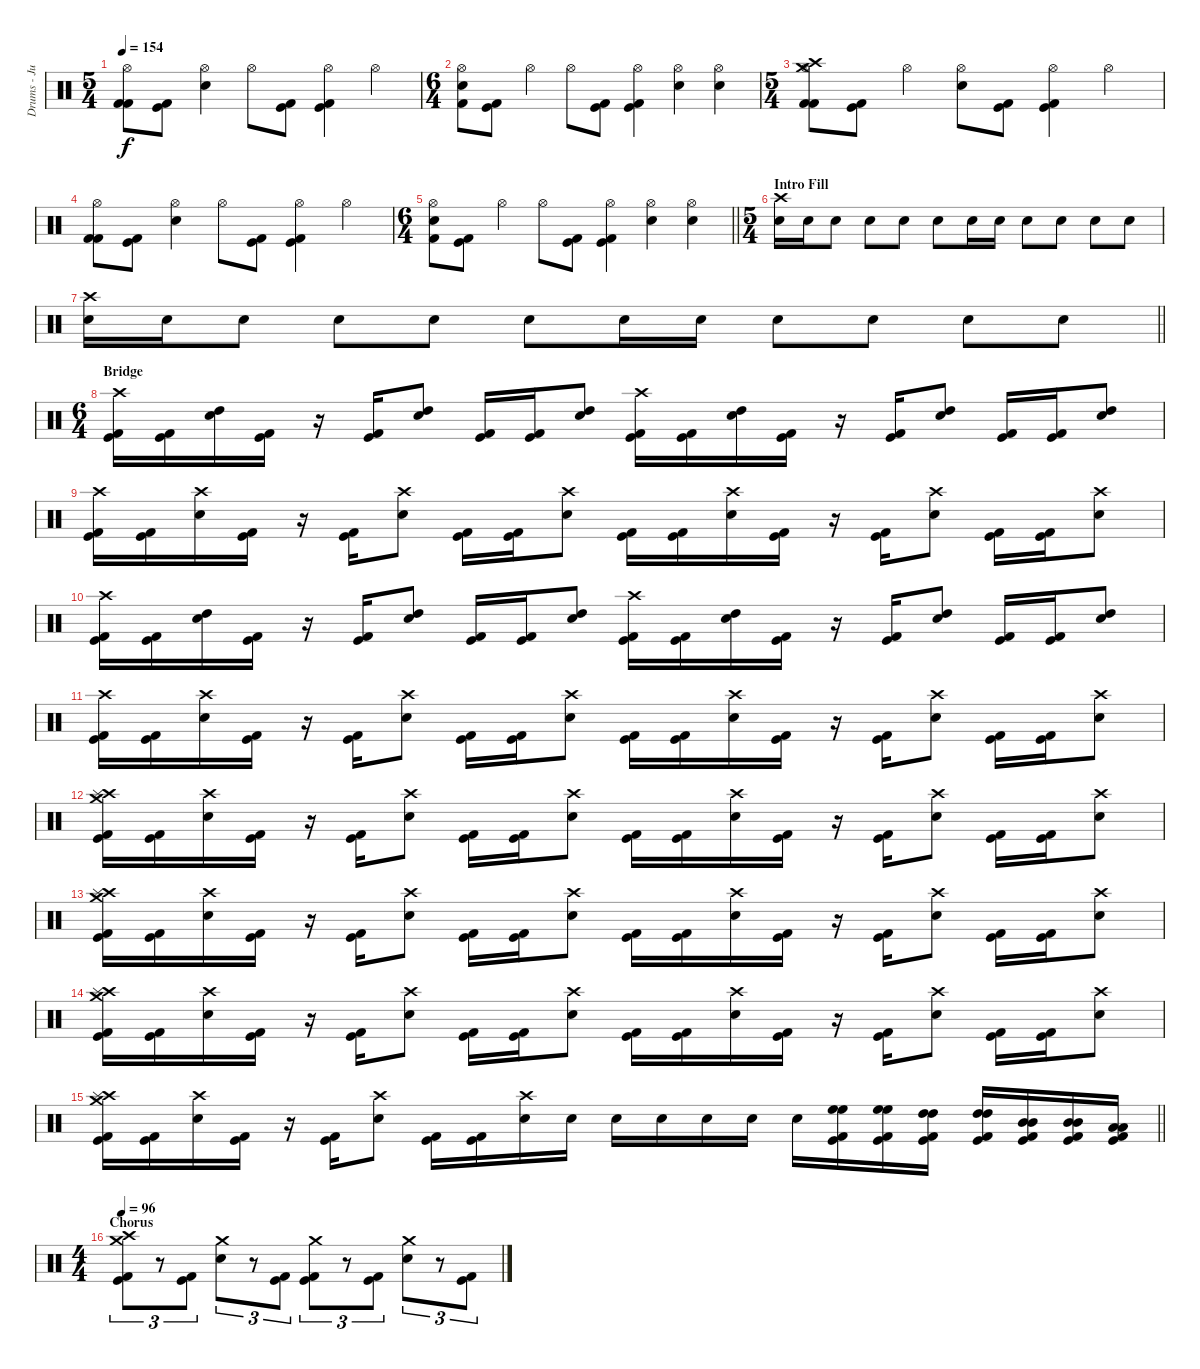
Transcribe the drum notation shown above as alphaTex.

\track ("Drums - Justin Foley" "Drums - Ju") {instrument percussion}
\staff {score}
\articulation defaults
\ts (5 4)
\tempo 154
\clef neutral
\ks c
("Hi-Hat (open)" "Kick (hit) 2" "Kick (hit) 2").8{dy f} ("Kick (hit) 2" "Kick (hit)").8 ("Hi-Hat (open)" "Snare (hit) 2").4 "Hi-Hat (open)".8 ("Kick (hit) 2" "Kick (hit)").8 ("Hi-Hat (open)" "Kick (hit) 2" "Kick (hit)").4 "Hi-Hat (open)".4 |
\ts (6 4)
("Hi-Hat (open)" "Snare (hit) 2" "Kick (hit) 2").8 ("Kick (hit) 2" "Kick (hit)").8 "Hi-Hat (open)".4 "Hi-Hat (open)".8 ("Kick (hit) 2" "Kick (hit)").8 ("Hi-Hat (open)" "Kick (hit) 2" "Kick (hit)").4 ("Hi-Hat (open)" "Snare (hit) 2").4 ("Hi-Hat (open)" "Snare (hit) 2").4 |
\ts (5 4)
("Hi-Hat (open)" "Kick (hit) 2" "Kick (hit) 2" "Crash high (hit)" "Crash medium (hit)").8 ("Kick (hit) 2" "Kick (hit)").8 "Hi-Hat (open)".4 ("Hi-Hat (open)" "Snare (hit) 2").8 ("Kick (hit) 2" "Kick (hit)").8 ("Hi-Hat (open)" "Kick (hit) 2" "Kick (hit)").4 "Hi-Hat (open)".4 |
("Hi-Hat (open)" "Kick (hit) 2" "Kick (hit) 2").8 ("Kick (hit) 2" "Kick (hit)").8 ("Hi-Hat (open)" "Snare (hit) 2").4 "Hi-Hat (open)".8 ("Kick (hit) 2" "Kick (hit)").8 ("Hi-Hat (open)" "Kick (hit) 2" "Kick (hit)").4 "Hi-Hat (open)".4 |
\ts (6 4)
\barLineRight lightlight
("Hi-Hat (open)" "Snare (hit) 2" "Kick (hit) 2").8 ("Kick (hit) 2" "Kick (hit)").8 "Hi-Hat (open)".4 "Hi-Hat (open)".8 ("Kick (hit) 2" "Kick (hit)").8 ("Hi-Hat (open)" "Kick (hit) 2" "Kick (hit)").4 ("Hi-Hat (open)" "Snare (hit) 2").4 ("Hi-Hat (open)" "Snare (hit) 2").4 |
\ts (5 4)
\section ("" "Intro Fill")
("Snare (hit) 2" "Crash high (hit)").16 "Snare (hit) 2".16 "Snare (hit) 2".8 "Snare (hit) 2".8 "Snare (hit) 2".8 "Snare (hit) 2".8 "Snare (hit) 2".16 "Snare (hit) 2".16 "Snare (hit) 2".8 "Snare (hit) 2".8 "Snare (hit) 2".8 "Snare (hit) 2".8 |
\barLineRight lightlight
("Snare (hit) 2" "Crash high (hit)").16 "Snare (hit) 2".16 "Snare (hit) 2".8 "Snare (hit) 2".8 "Snare (hit) 2".8 "Snare (hit) 2".8 "Snare (hit) 2".16 "Snare (hit) 2".16 "Snare (hit) 2".8 "Snare (hit) 2".8 "Snare (hit) 2".8 "Snare (hit) 2".8 |
\ts (6 4)
\section ("" "Bridge")
("Crash high (hit)" "Kick (hit) 2" "Kick (hit)").16 ("Kick (hit) 2" "Kick (hit)").16 ("Snare (hit) 2" "High Tom (hit)").16{bd 60} ("Kick (hit) 2" "Kick (hit)").16 r.16 ("Kick (hit) 2" "Kick (hit)").16 ("Snare (hit) 2" "High Tom (hit)").8{bu 60} ("Kick (hit) 2" "Kick (hit)").16 ("Kick (hit) 2" "Kick (hit)").16 ("Snare (hit) 2" "High Tom (hit)").8{bd 60} ("Crash high (hit)" "Kick (hit) 2" "Kick (hit)").16 ("Kick (hit) 2" "Kick (hit)").16 ("Snare (hit) 2" "High Tom (hit)").16{bu 60} ("Kick (hit) 2" "Kick (hit)").16 r.16 ("Kick (hit) 2" "Kick (hit)").16 ("Snare (hit) 2" "High Tom (hit)").8{bd 60} ("Kick (hit) 2" "Kick (hit)").16 ("Kick (hit) 2" "Kick (hit)").16 ("Snare (hit) 2" "High Tom (hit)").8{bu 60} |
("Crash high (hit)" "Kick (hit) 2" "Kick (hit)").16 ("Kick (hit) 2" "Kick (hit)").16 ("Crash high (hit)" "Snare (hit) 2").16 ("Kick (hit) 2" "Kick (hit)").16 r.16 ("Kick (hit) 2" "Kick (hit)").16 ("Crash high (hit)" "Snare (hit) 2").8 ("Kick (hit) 2" "Kick (hit)").16 ("Kick (hit) 2" "Kick (hit)").16 ("Crash high (hit)" "Snare (hit) 2").8 ("Kick (hit) 2" "Kick (hit)").16 ("Kick (hit) 2" "Kick (hit)").16 ("Crash high (hit)" "Snare (hit) 2").16 ("Kick (hit) 2" "Kick (hit)").16 r.16 ("Kick (hit) 2" "Kick (hit)").16 ("Crash high (hit)" "Snare (hit) 2").8 ("Kick (hit) 2" "Kick (hit)").16 ("Kick (hit) 2" "Kick (hit)").16 ("Crash high (hit)" "Snare (hit) 2").8 |
("Crash high (hit)" "Kick (hit) 2" "Kick (hit)").16 ("Kick (hit) 2" "Kick (hit)").16 ("Snare (hit) 2" "High Tom (hit)").16{bd 60} ("Kick (hit) 2" "Kick (hit)").16 r.16 ("Kick (hit) 2" "Kick (hit)").16 ("Snare (hit) 2" "High Tom (hit)").8{bu 60} ("Kick (hit) 2" "Kick (hit)").16 ("Kick (hit) 2" "Kick (hit)").16 ("Snare (hit) 2" "High Tom (hit)").8{bd 60} ("Crash high (hit)" "Kick (hit) 2" "Kick (hit)").16 ("Kick (hit) 2" "Kick (hit)").16 ("Snare (hit) 2" "High Tom (hit)").16{bu 60} ("Kick (hit) 2" "Kick (hit)").16 r.16 ("Kick (hit) 2" "Kick (hit)").16 ("Snare (hit) 2" "High Tom (hit)").8{bd 60} ("Kick (hit) 2" "Kick (hit)").16 ("Kick (hit) 2" "Kick (hit)").16 ("Snare (hit) 2" "High Tom (hit)").8{bu 60} |
("Crash high (hit)" "Kick (hit) 2" "Kick (hit)").16 ("Kick (hit) 2" "Kick (hit)").16 ("Crash high (hit)" "Snare (hit) 2").16 ("Kick (hit) 2" "Kick (hit)").16 r.16 ("Kick (hit) 2" "Kick (hit)").16 ("Crash high (hit)" "Snare (hit) 2").8 ("Kick (hit) 2" "Kick (hit)").16 ("Kick (hit) 2" "Kick (hit)").16 ("Crash high (hit)" "Snare (hit) 2").8 ("Kick (hit) 2" "Kick (hit)").16 ("Kick (hit) 2" "Kick (hit)").16 ("Crash high (hit)" "Snare (hit) 2").16 ("Kick (hit) 2" "Kick (hit)").16 r.16 ("Kick (hit) 2" "Kick (hit)").16 ("Crash high (hit)" "Snare (hit) 2").8 ("Kick (hit) 2" "Kick (hit)").16 ("Kick (hit) 2" "Kick (hit)").16 ("Crash high (hit)" "Snare (hit) 2").8 |
("Crash high (hit)" "Kick (hit) 2" "Kick (hit)" "Crash medium (hit)" "Splash (hit)").16 ("Kick (hit) 2" "Kick (hit)").16 ("Crash high (hit)" "Snare (hit) 2").16 ("Kick (hit) 2" "Kick (hit)").16 r.16 ("Kick (hit) 2" "Kick (hit)").16 ("Crash high (hit)" "Snare (hit) 2").8 ("Kick (hit) 2" "Kick (hit)").16 ("Kick (hit) 2" "Kick (hit)").16 ("Crash high (hit)" "Snare (hit) 2").8 ("Kick (hit) 2" "Kick (hit)").16 ("Kick (hit) 2" "Kick (hit)").16 ("Crash high (hit)" "Snare (hit) 2").16 ("Kick (hit) 2" "Kick (hit)").16 r.16 ("Kick (hit) 2" "Kick (hit)").16 ("Crash high (hit)" "Snare (hit) 2").8 ("Kick (hit) 2" "Kick (hit)").16 ("Kick (hit) 2" "Kick (hit)").16 ("Crash high (hit)" "Snare (hit) 2").8 |
("Crash high (hit)" "Kick (hit) 2" "Kick (hit)" "Crash medium (hit)" "Splash (hit)").16 ("Kick (hit) 2" "Kick (hit)").16 ("Crash high (hit)" "Snare (hit) 2").16 ("Kick (hit) 2" "Kick (hit)").16 r.16 ("Kick (hit) 2" "Kick (hit)").16 ("Crash high (hit)" "Snare (hit) 2").8 ("Kick (hit) 2" "Kick (hit)").16 ("Kick (hit) 2" "Kick (hit)").16 ("Crash high (hit)" "Snare (hit) 2").8 ("Kick (hit) 2" "Kick (hit)").16 ("Kick (hit) 2" "Kick (hit)").16 ("Crash high (hit)" "Snare (hit) 2").16 ("Kick (hit) 2" "Kick (hit)").16 r.16 ("Kick (hit) 2" "Kick (hit)").16 ("Crash high (hit)" "Snare (hit) 2").8 ("Kick (hit) 2" "Kick (hit)").16 ("Kick (hit) 2" "Kick (hit)").16 ("Crash high (hit)" "Snare (hit) 2").8 |
("Crash high (hit)" "Kick (hit) 2" "Kick (hit)" "Crash medium (hit)" "Splash (hit)").16 ("Kick (hit) 2" "Kick (hit)").16 ("Crash high (hit)" "Snare (hit) 2").16 ("Kick (hit) 2" "Kick (hit)").16 r.16 ("Kick (hit) 2" "Kick (hit)").16 ("Crash high (hit)" "Snare (hit) 2").8 ("Kick (hit) 2" "Kick (hit)").16 ("Kick (hit) 2" "Kick (hit)").16 ("Crash high (hit)" "Snare (hit) 2").8 ("Kick (hit) 2" "Kick (hit)").16 ("Kick (hit) 2" "Kick (hit)").16 ("Crash high (hit)" "Snare (hit) 2").16 ("Kick (hit) 2" "Kick (hit)").16 r.16 ("Kick (hit) 2" "Kick (hit)").16 ("Crash high (hit)" "Snare (hit) 2").8 ("Kick (hit) 2" "Kick (hit)").16 ("Kick (hit) 2" "Kick (hit)").16 ("Crash high (hit)" "Snare (hit) 2").8 |
\barLineRight lightlight
("Crash high (hit)" "Kick (hit) 2" "Kick (hit)" "Crash medium (hit)" "Splash (hit)").16 ("Kick (hit) 2" "Kick (hit)").16 ("Crash high (hit)" "Snare (hit) 2").16 ("Kick (hit) 2" "Kick (hit)").16 r.16 ("Kick (hit) 2" "Kick (hit)").16 ("Crash high (hit)" "Snare (hit) 2").8 ("Kick (hit) 2" "Kick (hit)").16 ("Kick (hit) 2" "Kick (hit)").16 ("Crash high (hit)" "Snare (hit) 2").16 "Snare (hit) 2".16 "Snare (hit) 2".16 "Snare (hit) 2".16 "Snare (hit) 2".16 "Snare (hit) 2".16 "Snare (hit) 2".16 ("High Floor Tom (hit)" "High Floor Tom (hit)" "Kick (hit) 2" "Kick (hit)").16 ("High Floor Tom (hit)" "High Floor Tom (hit)" "Kick (hit) 2" "Kick (hit)").16 ("High Tom (hit)" "High Tom (hit)" "Kick (hit) 2" "Kick (hit)").16 ("High Tom (hit)" "High Tom (hit)" "Kick (hit) 2" "Kick (hit)").16 ("Mid Tom (hit)" "Mid Tom (hit)" "Kick (hit) 2" "Kick (hit)").16 ("Mid Tom (hit)" "Mid Tom (hit)" "Kick (hit) 2" "Kick (hit)").16 ("Low Tom (hit)" "Low Tom (hit)" "Kick (hit) 2" "Kick (hit)").16 |
\ts (4 4)
\section ("" "Chorus")
\tempo 96
("Crash medium (hit)" "Kick (hit) 2" "Kick (hit)" "Crash high (hit)").8{tu (3 2)} r.8{tu (3 2)} ("Kick (hit) 2" "Kick (hit)").8{tu (3 2)} ("Crash medium (hit)" "Snare (hit) 2").8{tu (3 2)} r.8{tu (3 2)} ("Kick (hit) 2" "Kick (hit)").8{tu (3 2)} ("Crash medium (hit)" "Kick (hit) 2" "Kick (hit)").8{tu (3 2)} r.8{tu (3 2)} ("Kick (hit) 2" "Kick (hit)").8{tu (3 2)} ("Crash medium (hit)" "Snare (hit) 2").8{tu (3 2)} r.8{tu (3 2)} ("Kick (hit) 2" "Kick (hit)").8{tu (3 2)}
